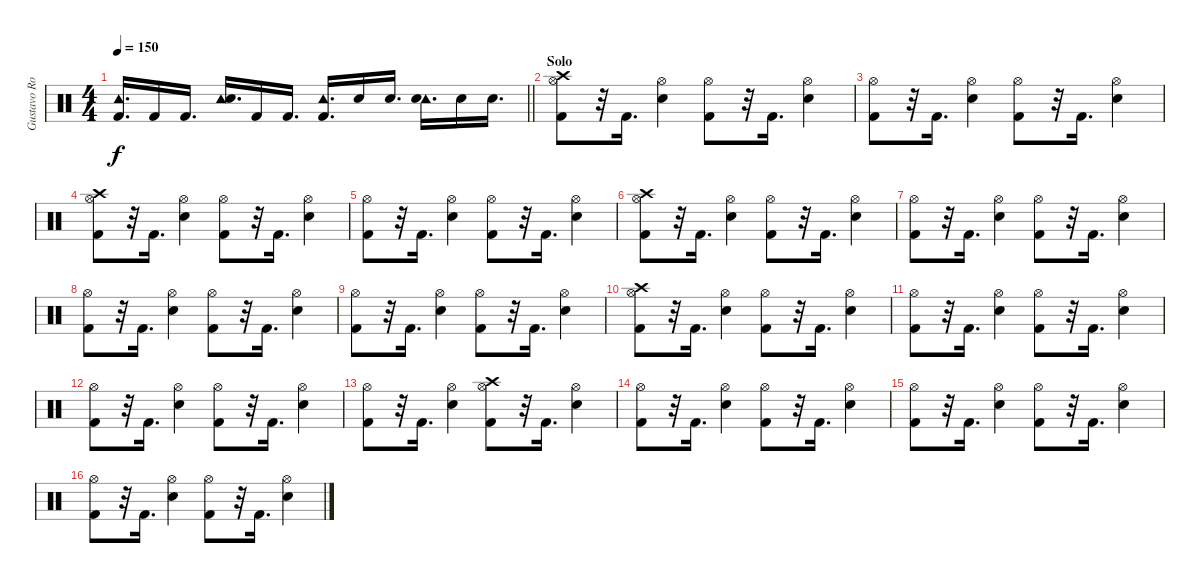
\track ("Gustavo Rowek" "Gustavo Ro") {instrument percussion}
\staff {score}
\articulation defaults
\ts (4 4)
\tempo 150
\clef neutral
\barLineRight lightlight
\ks c
("Tambourine (hit)" "Kick (hit) 2").16{d dy f} "Kick (hit) 2".16 "Kick (hit) 2".16{d} ("Tambourine (hit)" "Electric Snare (hit)").16{d} "Kick (hit) 2".16 "Kick (hit) 2".16{d} ("Tambourine (hit)" "Kick (hit) 2").16{d} "Electric Snare (hit)".16 "Electric Snare (hit)".16{d} ("Tambourine (hit)" "Electric Snare (hit)").16{d} "Electric Snare (hit)".16 "Electric Snare (hit)".16{d} |
\section ("" "Solo")
("Crash high (hit)" "Hi-Hat (open)" "Kick (hit) 2").8 r.32 "Kick (hit) 2".16{d} ("Hi-Hat (open)" "Electric Snare (hit)").4 ("Hi-Hat (open)" "Kick (hit) 2").8 r.32 "Kick (hit) 2".16{d} ("Hi-Hat (open)" "Electric Snare (hit)").4 |
("Hi-Hat (open)" "Kick (hit) 2").8 r.32 "Kick (hit) 2".16{d} ("Hi-Hat (open)" "Electric Snare (hit)").4 ("Hi-Hat (open)" "Kick (hit) 2").8 r.32 "Kick (hit) 2".16{d} ("Hi-Hat (open)" "Electric Snare (hit)").4 |
("Crash high (hit)" "Hi-Hat (open)" "Kick (hit) 2").8 r.32 "Kick (hit) 2".16{d} ("Hi-Hat (open)" "Electric Snare (hit)").4 ("Hi-Hat (open)" "Kick (hit) 2").8 r.32 "Kick (hit) 2".16{d} ("Hi-Hat (open)" "Electric Snare (hit)").4 |
("Hi-Hat (open)" "Kick (hit) 2").8 r.32 "Kick (hit) 2".16{d} ("Hi-Hat (open)" "Electric Snare (hit)").4 ("Hi-Hat (open)" "Kick (hit) 2").8 r.32 "Kick (hit) 2".16{d} ("Hi-Hat (open)" "Electric Snare (hit)").4 |
("Crash high (hit)" "Hi-Hat (open)" "Kick (hit) 2").8 r.32 "Kick (hit) 2".16{d} ("Hi-Hat (open)" "Electric Snare (hit)").4 ("Hi-Hat (open)" "Kick (hit) 2").8 r.32 "Kick (hit) 2".16{d} ("Hi-Hat (open)" "Electric Snare (hit)").4 |
("Hi-Hat (open)" "Kick (hit) 2").8 r.32 "Kick (hit) 2".16{d} ("Hi-Hat (open)" "Electric Snare (hit)").4 ("Hi-Hat (open)" "Kick (hit) 2").8 r.32 "Kick (hit) 2".16{d} ("Hi-Hat (open)" "Electric Snare (hit)").4 |
("Hi-Hat (open)" "Kick (hit) 2").8 r.32 "Kick (hit) 2".16{d} ("Hi-Hat (open)" "Electric Snare (hit)").4 ("Hi-Hat (open)" "Kick (hit) 2").8 r.32 "Kick (hit) 2".16{d} ("Hi-Hat (open)" "Electric Snare (hit)").4 |
("Hi-Hat (open)" "Kick (hit) 2").8 r.32 "Kick (hit) 2".16{d} ("Hi-Hat (open)" "Electric Snare (hit)").4 ("Hi-Hat (open)" "Kick (hit) 2").8 r.32 "Kick (hit) 2".16{d} ("Hi-Hat (open)" "Electric Snare (hit)").4 |
("Crash high (hit)" "Hi-Hat (open)" "Kick (hit) 2").8 r.32 "Kick (hit) 2".16{d} ("Hi-Hat (open)" "Electric Snare (hit)").4 ("Hi-Hat (open)" "Kick (hit) 2").8 r.32 "Kick (hit) 2".16{d} ("Hi-Hat (open)" "Electric Snare (hit)").4 |
("Hi-Hat (open)" "Kick (hit) 2").8 r.32 "Kick (hit) 2".16{d} ("Hi-Hat (open)" "Electric Snare (hit)").4 ("Hi-Hat (open)" "Kick (hit) 2").8 r.32 "Kick (hit) 2".16{d} ("Hi-Hat (open)" "Electric Snare (hit)").4 |
("Hi-Hat (open)" "Kick (hit) 2").8 r.32 "Kick (hit) 2".16{d} ("Hi-Hat (open)" "Electric Snare (hit)").4 ("Hi-Hat (open)" "Kick (hit) 2").8 r.32 "Kick (hit) 2".16{d} ("Hi-Hat (open)" "Electric Snare (hit)").4 |
("Hi-Hat (open)" "Kick (hit) 2").8 r.32 "Kick (hit) 2".16{d} ("Hi-Hat (open)" "Electric Snare (hit)").4 ("Crash high (hit)" "Hi-Hat (open)" "Kick (hit) 2").8 r.32 "Kick (hit) 2".16{d} ("Hi-Hat (open)" "Electric Snare (hit)").4 |
("Hi-Hat (open)" "Kick (hit) 2").8 r.32 "Kick (hit) 2".16{d} ("Hi-Hat (open)" "Electric Snare (hit)").4 ("Hi-Hat (open)" "Kick (hit) 2").8 r.32 "Kick (hit) 2".16{d} ("Hi-Hat (open)" "Electric Snare (hit)").4 |
("Hi-Hat (open)" "Kick (hit) 2").8 r.32 "Kick (hit) 2".16{d} ("Hi-Hat (open)" "Electric Snare (hit)").4 ("Hi-Hat (open)" "Kick (hit) 2").8 r.32 "Kick (hit) 2".16{d} ("Hi-Hat (open)" "Electric Snare (hit)").4 |
("Hi-Hat (open)" "Kick (hit) 2").8 r.32 "Kick (hit) 2".16{d} ("Hi-Hat (open)" "Electric Snare (hit)").4 ("Hi-Hat (open)" "Kick (hit) 2").8 r.32 "Kick (hit) 2".16{d} ("Hi-Hat (open)" "Electric Snare (hit)").4
